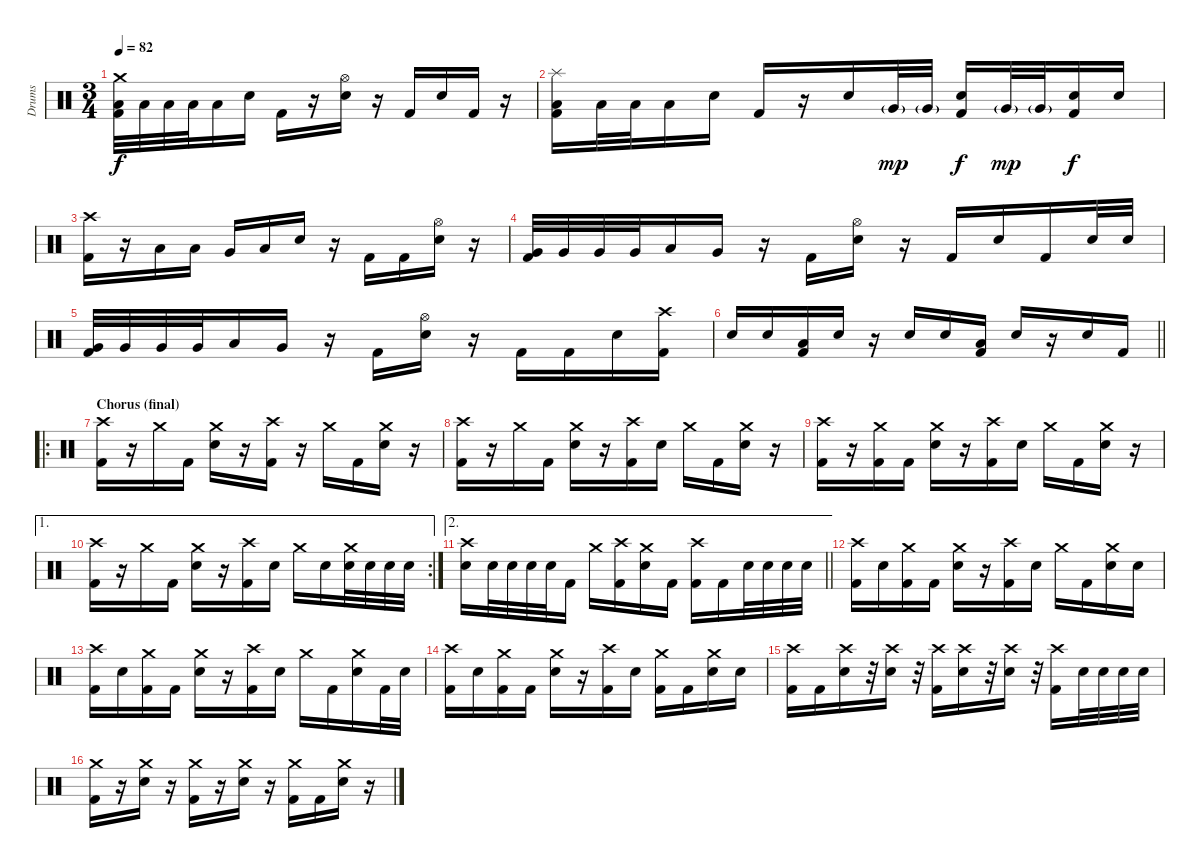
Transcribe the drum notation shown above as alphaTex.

\track ("Drums" "Drums") {instrument percussion}
\staff {score}
\articulation defaults
\ts (3 4)
\tempo 82
\clef neutral
\ks c
("Crash medium (hit)" "Low Tom (hit)" "Kick (hit) 2").32{dy f} "Low Tom (hit)".32 "Low Tom (hit)".32 "Low Tom (hit)".32 "Low Tom (hit)".16 "Electric Snare (hit)".16 "Kick (hit) 2".16 r.16 ("Hi-Hat (open)" "Electric Snare (hit)").16 r.16 "Kick (hit) 2".16 "Electric Snare (hit)".16 "Kick (hit) 2".16 r.16 |
("Splash (hit)" "Low Tom (hit)" "Kick (hit) 2").16 "Low Tom (hit)".32 "Low Tom (hit)".32 "Low Tom (hit)".16 "Electric Snare (hit)".16 "Kick (hit) 2".16 r.16 "Electric Snare (hit)".16 "Very Low Tom (hit)"{g}.32{dy mp} "Very Low Tom (hit)"{g}.32 ("Electric Snare (hit)" "Kick (hit) 2").16{dy f} "Very Low Tom (hit)"{g}.32{dy mp} "Very Low Tom (hit)"{g}.32 ("Electric Snare (hit)" "Kick (hit) 2").16{dy f} "Electric Snare (hit)".16 |
("Crash high (hit)" "Kick (hit) 2").16 r.16 "Low Floor Tom (hit)".16 "Low Tom (hit)".16 "Very Low Tom (hit)".16 "Low Floor Tom (hit)".16 "Electric Snare (hit)".16 r.16 "Kick (hit) 2".16 "Kick (hit) 2".16 ("Hi-Hat (open)" "Electric Snare (hit)").16 r.16 |
("Very Low Tom (hit)" "Kick (hit) 2").32 "Very Low Tom (hit)".32 "Very Low Tom (hit)".32 "Very Low Tom (hit)".32 "Low Tom (hit)".16 "Very Low Tom (hit)".16 r.16 "Kick (hit) 2".16 ("Hi-Hat (open)" "Electric Snare (hit)").16 r.16 "Kick (hit) 2".16 "Electric Snare (hit)".16 "Kick (hit) 2".16 "Electric Snare (hit)".32 "Electric Snare (hit)".32 |
("Very Low Tom (hit)" "Kick (hit) 2").32 "Very Low Tom (hit)".32 "Very Low Tom (hit)".32 "Very Low Tom (hit)".32 "Low Tom (hit)".16 "Very Low Tom (hit)".16 r.16 "Kick (hit) 2".16 ("Hi-Hat (open)" "Electric Snare (hit)").16 r.16 "Kick (hit) 2".16 "Kick (hit) 2".16 "Electric Snare (hit)".16 ("Crash high (hit)" "Kick (hit) 2").16 |
\barLineRight lightlight "Electric Snare (hit)".16 "Electric Snare (hit)".16
("Low Floor Tom (hit)" "Kick (hit) 2").16 "Electric Snare (hit)".16 r.16 "Electric Snare (hit)".16 "Electric Snare (hit)".16 ("Low Floor Tom (hit)" "Kick (hit) 2").16 "Electric Snare (hit)".16 r.16 "Electric Snare (hit)".16 "Kick (hit) 2".16 |
\ro
\section ("" "Chorus (final)")
("Crash high (hit)" "Kick (hit) 2").16 r.16 "Crash medium (hit)".16 "Kick (hit) 2".16 ("Crash medium (hit)" "Electric Snare (hit)").16 r.16 ("Crash high (hit)" "Kick (hit) 2").16 r.16 "Crash medium (hit)".16 "Kick (hit) 2".16 ("Crash medium (hit)" "Electric Snare (hit)").16 r.16 |
("Crash high (hit)" "Kick (hit) 2").16 r.16 "Crash medium (hit)".16 "Kick (hit) 2".16 ("Crash medium (hit)" "Electric Snare (hit)").16 r.16 ("Crash high (hit)" "Kick (hit) 2").16 "Electric Snare (hit)".16 "Crash medium (hit)".16 "Kick (hit) 2".16 ("Crash medium (hit)" "Electric Snare (hit)").16 r.16 |
("Crash high (hit)" "Kick (hit) 2").16 r.16 ("Crash medium (hit)" "Kick (hit) 2").16 "Kick (hit) 2".16 ("Crash medium (hit)" "Electric Snare (hit)").16 r.16 ("Crash high (hit)" "Kick (hit) 2").16 "Electric Snare (hit)".16 "Crash medium (hit)".16 "Kick (hit) 2".16 ("Crash medium (hit)" "Electric Snare (hit)").16 r.16 |
\ae 1
\rc 2
("Crash high (hit)" "Kick (hit) 2").16 r.16 "Crash medium (hit)".16 "Kick (hit) 2".16 ("Crash medium (hit)" "Electric Snare (hit)").16 r.16 ("Crash high (hit)" "Kick (hit) 2").16 "Electric Snare (hit)".16 "Crash medium (hit)".16 "Electric Snare (hit)".16 ("Crash medium (hit)" "Electric Snare (hit)").32 "Electric Snare (hit)".32 "Electric Snare (hit)".32 "Electric Snare (hit)".32 |
\ae 2
\barLineRight lightlight
("Crash high (hit)" "Electric Snare (hit)").16 "Electric Snare (hit)".32 "Electric Snare (hit)".32 "Electric Snare (hit)".32 "Electric Snare (hit)".32 "Kick (hit) 2".16 "Crash medium (hit)".16 ("Crash high (hit)" "Kick (hit) 2").16 ("Crash medium (hit)" "Electric Snare (hit)").16 "Kick (hit) 2".16 ("Crash high (hit)" "Kick (hit) 2").16 "Kick (hit) 2".16 "Electric Snare (hit)".32 "Electric Snare (hit)".32 "Electric Snare (hit)".32 "Electric Snare (hit)".32 |
("Crash high (hit)" "Kick (hit) 2").16 "Electric Snare (hit)".16 ("Crash medium (hit)" "Kick (hit) 2").16 "Kick (hit) 2".16 ("Crash medium (hit)" "Electric Snare (hit)").16 r.16 ("Crash high (hit)" "Kick (hit) 2").16 "Electric Snare (hit)".16 "Crash medium (hit)".16 "Kick (hit) 2".16 ("Crash medium (hit)" "Electric Snare (hit)").16 "Electric Snare (hit)".16 |
("Crash high (hit)" "Kick (hit) 2").16 "Electric Snare (hit)".16 ("Crash medium (hit)" "Kick (hit) 2").16 "Kick (hit) 2".16 ("Crash medium (hit)" "Electric Snare (hit)").16 r.16 ("Crash high (hit)" "Kick (hit) 2").16 "Electric Snare (hit)".16 "Crash medium (hit)".16 "Kick (hit) 2".16 ("Crash medium (hit)" "Electric Snare (hit)").16 "Kick (hit) 2".32 "Electric Snare (hit)".32 |
("Crash high (hit)" "Kick (hit) 2").16 "Electric Snare (hit)".16 ("Crash medium (hit)" "Kick (hit) 2").16 "Kick (hit) 2".16 ("Crash medium (hit)" "Electric Snare (hit)").16 r.16 ("Crash high (hit)" "Kick (hit) 2").16 "Electric Snare (hit)".16 ("Crash medium (hit)" "Kick (hit) 2").16 "Kick (hit) 2".16 ("Crash medium (hit)" "Electric Snare (hit)").16 "Electric Snare (hit)".16 |
("Crash high (hit)" "Kick (hit) 2").16 "Kick (hit) 2".16 ("Crash high (hit)" "Electric Snare (hit)").16 r.32 ("Crash high (hit)" "Electric Snare (hit)").16 r.32 ("Crash high (hit)" "Kick (hit) 2").16 ("Crash high (hit)" "Electric Snare (hit)").16 r.32 ("Crash high (hit)" "Electric Snare (hit)").16 r.32 ("Crash high (hit)" "Kick (hit) 2").16 "Electric Snare (hit)".32 "Electric Snare (hit)".32 "Electric Snare (hit)".32 "Electric Snare (hit)".32 |
("Crash medium (hit)" "Kick (hit) 2").16 r.16 ("Crash medium (hit)" "Electric Snare (hit)").16 r.16 ("Crash medium (hit)" "Kick (hit) 2").16 r.16 ("Crash medium (hit)" "Electric Snare (hit)").16 r.16 ("Crash medium (hit)" "Kick (hit) 2").16 "Kick (hit) 2".16 ("Crash medium (hit)" "Electric Snare (hit)").16 r.16
